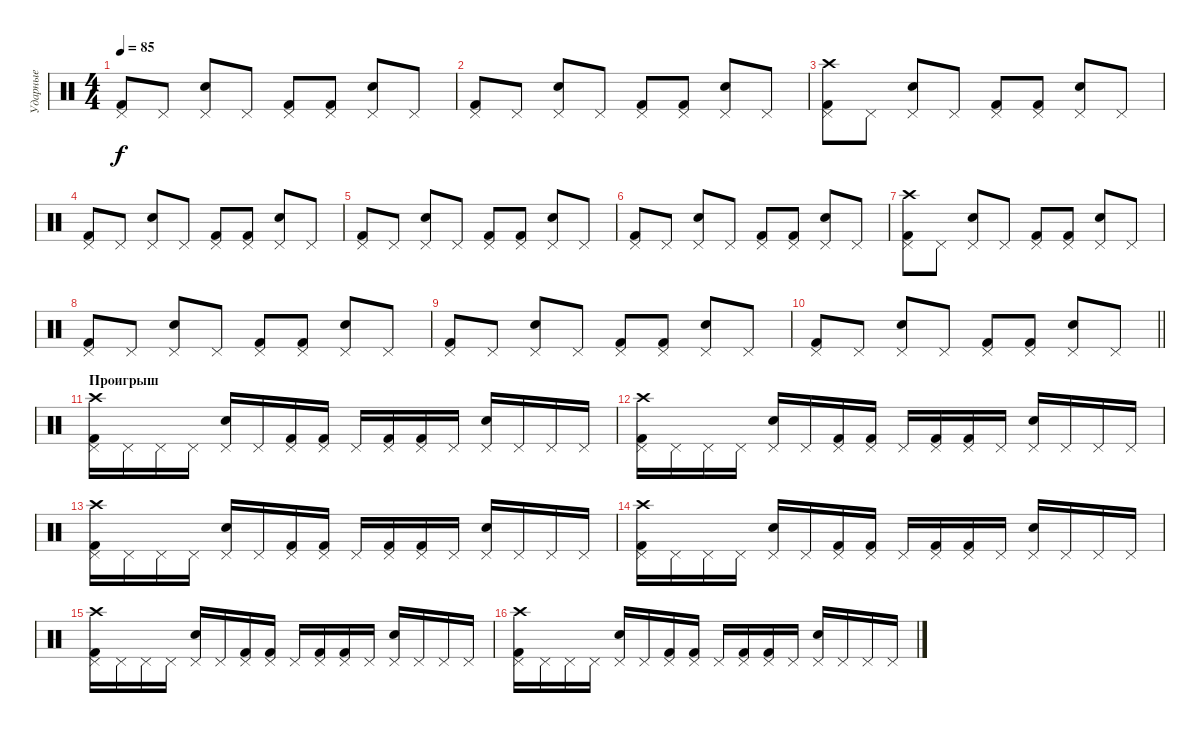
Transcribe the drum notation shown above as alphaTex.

\track ("Ударные" "Ударные") {instrument percussion}
\staff {score}
\articulation defaults
\ts (4 4)
\tempo 85
\clef neutral
\ks c
("Pedal Hi-Hat (hit)" "Kick (hit) 2").8{dy f} "Pedal Hi-Hat (hit)".8 ("Pedal Hi-Hat (hit)" "Electric Snare (hit)").8 "Pedal Hi-Hat (hit)".8 ("Pedal Hi-Hat (hit)" "Kick (hit) 2").8 ("Pedal Hi-Hat (hit)" "Kick (hit) 2").8 ("Pedal Hi-Hat (hit)" "Electric Snare (hit)").8 "Pedal Hi-Hat (hit)".8 |
("Pedal Hi-Hat (hit)" "Kick (hit) 2").8 "Pedal Hi-Hat (hit)".8 ("Pedal Hi-Hat (hit)" "Electric Snare (hit)").8 "Pedal Hi-Hat (hit)".8 ("Pedal Hi-Hat (hit)" "Kick (hit) 2").8 ("Pedal Hi-Hat (hit)" "Kick (hit) 2").8 ("Pedal Hi-Hat (hit)" "Electric Snare (hit)").8 "Pedal Hi-Hat (hit)".8 |
("Pedal Hi-Hat (hit)" "Crash high (hit)" "Kick (hit) 2").8 "Pedal Hi-Hat (hit)".8 ("Pedal Hi-Hat (hit)" "Electric Snare (hit)").8 "Pedal Hi-Hat (hit)".8 ("Pedal Hi-Hat (hit)" "Kick (hit) 2").8 ("Pedal Hi-Hat (hit)" "Kick (hit) 2").8 ("Pedal Hi-Hat (hit)" "Electric Snare (hit)").8 "Pedal Hi-Hat (hit)".8 |
("Pedal Hi-Hat (hit)" "Kick (hit) 2").8 "Pedal Hi-Hat (hit)".8 ("Pedal Hi-Hat (hit)" "Electric Snare (hit)").8 "Pedal Hi-Hat (hit)".8 ("Pedal Hi-Hat (hit)" "Kick (hit) 2").8 ("Pedal Hi-Hat (hit)" "Kick (hit) 2").8 ("Pedal Hi-Hat (hit)" "Electric Snare (hit)").8 "Pedal Hi-Hat (hit)".8 |
("Pedal Hi-Hat (hit)" "Kick (hit) 2").8 "Pedal Hi-Hat (hit)".8 ("Pedal Hi-Hat (hit)" "Electric Snare (hit)").8 "Pedal Hi-Hat (hit)".8 ("Pedal Hi-Hat (hit)" "Kick (hit) 2").8 ("Pedal Hi-Hat (hit)" "Kick (hit) 2").8 ("Pedal Hi-Hat (hit)" "Electric Snare (hit)").8 "Pedal Hi-Hat (hit)".8 |
("Pedal Hi-Hat (hit)" "Kick (hit) 2").8 "Pedal Hi-Hat (hit)".8 ("Pedal Hi-Hat (hit)" "Electric Snare (hit)").8 "Pedal Hi-Hat (hit)".8 ("Pedal Hi-Hat (hit)" "Kick (hit) 2").8 ("Pedal Hi-Hat (hit)" "Kick (hit) 2").8 ("Pedal Hi-Hat (hit)" "Electric Snare (hit)").8 "Pedal Hi-Hat (hit)".8 |
("Pedal Hi-Hat (hit)" "Crash high (hit)" "Kick (hit) 2").8 "Pedal Hi-Hat (hit)".8 ("Pedal Hi-Hat (hit)" "Electric Snare (hit)").8 "Pedal Hi-Hat (hit)".8 ("Pedal Hi-Hat (hit)" "Kick (hit) 2").8 ("Pedal Hi-Hat (hit)" "Kick (hit) 2").8 ("Pedal Hi-Hat (hit)" "Electric Snare (hit)").8 "Pedal Hi-Hat (hit)".8 |
("Pedal Hi-Hat (hit)" "Kick (hit) 2").8 "Pedal Hi-Hat (hit)".8 ("Pedal Hi-Hat (hit)" "Electric Snare (hit)").8 "Pedal Hi-Hat (hit)".8 ("Pedal Hi-Hat (hit)" "Kick (hit) 2").8 ("Pedal Hi-Hat (hit)" "Kick (hit) 2").8 ("Pedal Hi-Hat (hit)" "Electric Snare (hit)").8 "Pedal Hi-Hat (hit)".8 |
("Pedal Hi-Hat (hit)" "Kick (hit) 2").8 "Pedal Hi-Hat (hit)".8 ("Pedal Hi-Hat (hit)" "Electric Snare (hit)").8 "Pedal Hi-Hat (hit)".8 ("Pedal Hi-Hat (hit)" "Kick (hit) 2").8 ("Pedal Hi-Hat (hit)" "Kick (hit) 2").8 ("Pedal Hi-Hat (hit)" "Electric Snare (hit)").8 "Pedal Hi-Hat (hit)".8 |
\barLineRight lightlight
("Pedal Hi-Hat (hit)" "Kick (hit) 2").8 "Pedal Hi-Hat (hit)".8 ("Pedal Hi-Hat (hit)" "Electric Snare (hit)").8 "Pedal Hi-Hat (hit)".8 ("Pedal Hi-Hat (hit)" "Kick (hit) 2").8 ("Pedal Hi-Hat (hit)" "Kick (hit) 2").8 ("Pedal Hi-Hat (hit)" "Electric Snare (hit)").8 "Pedal Hi-Hat (hit)".8 |
\section ("" "Проигрыш")
("Pedal Hi-Hat (hit)" "Crash high (hit)" "Kick (hit) 2").16 "Pedal Hi-Hat (hit)".16 "Pedal Hi-Hat (hit)".16 "Pedal Hi-Hat (hit)".16 ("Pedal Hi-Hat (hit)" "Electric Snare (hit)").16 "Pedal Hi-Hat (hit)".16 ("Pedal Hi-Hat (hit)" "Kick (hit) 2").16 ("Pedal Hi-Hat (hit)" "Kick (hit) 2").16 "Pedal Hi-Hat (hit)".16 ("Pedal Hi-Hat (hit)" "Kick (hit) 2").16 ("Pedal Hi-Hat (hit)" "Kick (hit) 2").16 "Pedal Hi-Hat (hit)".16 ("Pedal Hi-Hat (hit)" "Electric Snare (hit)").16 "Pedal Hi-Hat (hit)".16 "Pedal Hi-Hat (hit)".16 "Pedal Hi-Hat (hit)".16 |
("Pedal Hi-Hat (hit)" "Crash high (hit)" "Kick (hit) 2").16 "Pedal Hi-Hat (hit)".16 "Pedal Hi-Hat (hit)".16 "Pedal Hi-Hat (hit)".16 ("Pedal Hi-Hat (hit)" "Electric Snare (hit)").16 "Pedal Hi-Hat (hit)".16 ("Pedal Hi-Hat (hit)" "Kick (hit) 2").16 ("Pedal Hi-Hat (hit)" "Kick (hit) 2").16 "Pedal Hi-Hat (hit)".16 ("Pedal Hi-Hat (hit)" "Kick (hit) 2").16 ("Pedal Hi-Hat (hit)" "Kick (hit) 2").16 "Pedal Hi-Hat (hit)".16 ("Pedal Hi-Hat (hit)" "Electric Snare (hit)").16 "Pedal Hi-Hat (hit)".16 "Pedal Hi-Hat (hit)".16 "Pedal Hi-Hat (hit)".16 |
("Pedal Hi-Hat (hit)" "Crash high (hit)" "Kick (hit) 2").16 "Pedal Hi-Hat (hit)".16 "Pedal Hi-Hat (hit)".16 "Pedal Hi-Hat (hit)".16 ("Pedal Hi-Hat (hit)" "Electric Snare (hit)").16 "Pedal Hi-Hat (hit)".16 ("Pedal Hi-Hat (hit)" "Kick (hit) 2").16 ("Pedal Hi-Hat (hit)" "Kick (hit) 2").16 "Pedal Hi-Hat (hit)".16 ("Pedal Hi-Hat (hit)" "Kick (hit) 2").16 ("Pedal Hi-Hat (hit)" "Kick (hit) 2").16 "Pedal Hi-Hat (hit)".16 ("Pedal Hi-Hat (hit)" "Electric Snare (hit)").16 "Pedal Hi-Hat (hit)".16 "Pedal Hi-Hat (hit)".16 "Pedal Hi-Hat (hit)".16 |
("Pedal Hi-Hat (hit)" "Crash high (hit)" "Kick (hit) 2").16 "Pedal Hi-Hat (hit)".16 "Pedal Hi-Hat (hit)".16 "Pedal Hi-Hat (hit)".16 ("Pedal Hi-Hat (hit)" "Electric Snare (hit)").16 "Pedal Hi-Hat (hit)".16 ("Pedal Hi-Hat (hit)" "Kick (hit) 2").16 ("Pedal Hi-Hat (hit)" "Kick (hit) 2").16 "Pedal Hi-Hat (hit)".16 ("Pedal Hi-Hat (hit)" "Kick (hit) 2").16 ("Pedal Hi-Hat (hit)" "Kick (hit) 2").16 "Pedal Hi-Hat (hit)".16 ("Pedal Hi-Hat (hit)" "Electric Snare (hit)").16 "Pedal Hi-Hat (hit)".16 "Pedal Hi-Hat (hit)".16 "Pedal Hi-Hat (hit)".16 |
("Pedal Hi-Hat (hit)" "Crash high (hit)" "Kick (hit) 2").16 "Pedal Hi-Hat (hit)".16 "Pedal Hi-Hat (hit)".16 "Pedal Hi-Hat (hit)".16 ("Pedal Hi-Hat (hit)" "Electric Snare (hit)").16 "Pedal Hi-Hat (hit)".16 ("Pedal Hi-Hat (hit)" "Kick (hit) 2").16 ("Pedal Hi-Hat (hit)" "Kick (hit) 2").16 "Pedal Hi-Hat (hit)".16 ("Pedal Hi-Hat (hit)" "Kick (hit) 2").16 ("Pedal Hi-Hat (hit)" "Kick (hit) 2").16 "Pedal Hi-Hat (hit)".16 ("Pedal Hi-Hat (hit)" "Electric Snare (hit)").16 "Pedal Hi-Hat (hit)".16 "Pedal Hi-Hat (hit)".16 "Pedal Hi-Hat (hit)".16 |
("Pedal Hi-Hat (hit)" "Crash high (hit)" "Kick (hit) 2").16 "Pedal Hi-Hat (hit)".16 "Pedal Hi-Hat (hit)".16 "Pedal Hi-Hat (hit)".16 ("Pedal Hi-Hat (hit)" "Electric Snare (hit)").16 "Pedal Hi-Hat (hit)".16 ("Pedal Hi-Hat (hit)" "Kick (hit) 2").16 ("Pedal Hi-Hat (hit)" "Kick (hit) 2").16 "Pedal Hi-Hat (hit)".16 ("Pedal Hi-Hat (hit)" "Kick (hit) 2").16 ("Pedal Hi-Hat (hit)" "Kick (hit) 2").16 "Pedal Hi-Hat (hit)".16 ("Pedal Hi-Hat (hit)" "Electric Snare (hit)").16 "Pedal Hi-Hat (hit)".16 "Pedal Hi-Hat (hit)".16 "Pedal Hi-Hat (hit)".16
